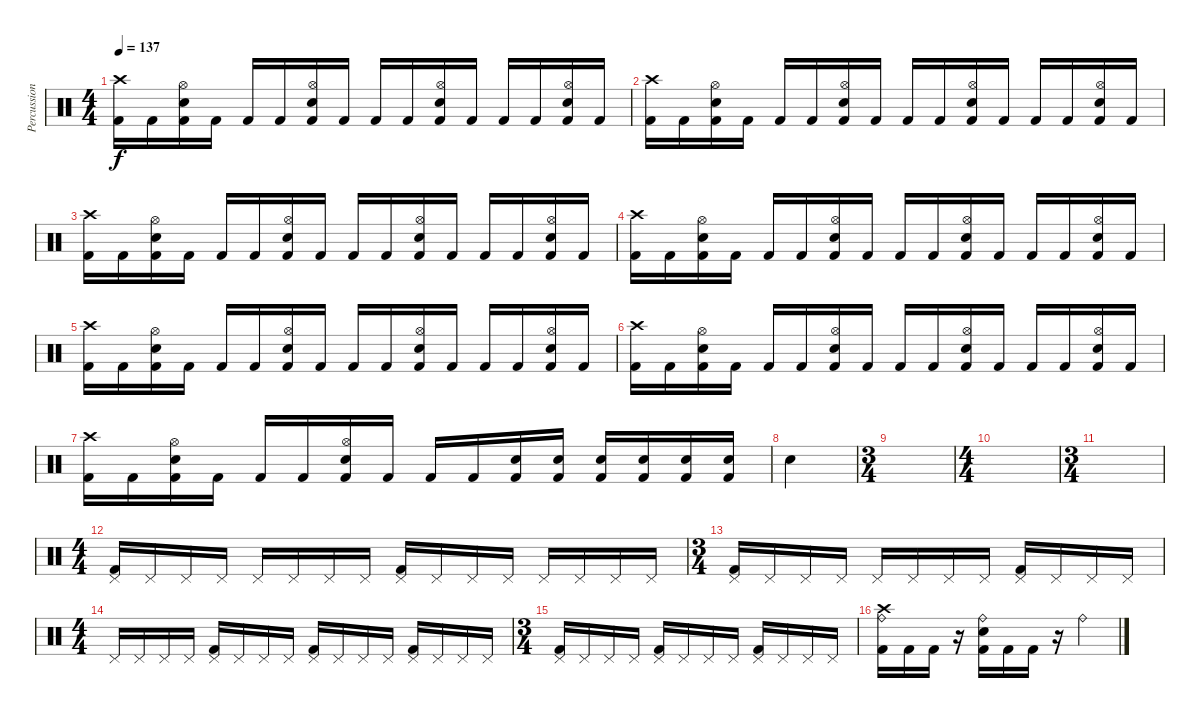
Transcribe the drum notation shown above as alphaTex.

\track ("Percussion" "Percussion") {instrument percussion}
\staff {score}
\articulation defaults
\ts (4 4)
\tempo 137
\clef neutral
\ks c
("Crash high (hit)" "Kick (hit) 2").16{dy f} "Kick (hit) 2".16 ("Hi-Hat (open)" "Electric Snare (hit)" "Kick (hit) 2").16 "Kick (hit) 2".16 "Kick (hit) 2".16 "Kick (hit) 2".16 ("Hi-Hat (open)" "Electric Snare (hit)" "Kick (hit) 2").16 "Kick (hit) 2".16 "Kick (hit) 2".16 "Kick (hit) 2".16 ("Hi-Hat (open)" "Electric Snare (hit)" "Kick (hit) 2").16 "Kick (hit) 2".16 "Kick (hit) 2".16 "Kick (hit) 2".16 ("Hi-Hat (open)" "Electric Snare (hit)" "Kick (hit) 2").16 "Kick (hit) 2".16 |
("Crash high (hit)" "Kick (hit) 2").16 "Kick (hit) 2".16 ("Hi-Hat (open)" "Electric Snare (hit)" "Kick (hit) 2").16 "Kick (hit) 2".16 "Kick (hit) 2".16 "Kick (hit) 2".16 ("Hi-Hat (open)" "Electric Snare (hit)" "Kick (hit) 2").16 "Kick (hit) 2".16 "Kick (hit) 2".16 "Kick (hit) 2".16 ("Hi-Hat (open)" "Electric Snare (hit)" "Kick (hit) 2").16 "Kick (hit) 2".16 "Kick (hit) 2".16 "Kick (hit) 2".16 ("Hi-Hat (open)" "Electric Snare (hit)" "Kick (hit) 2").16 "Kick (hit) 2".16 |
("Crash high (hit)" "Kick (hit) 2").16 "Kick (hit) 2".16 ("Hi-Hat (open)" "Electric Snare (hit)" "Kick (hit) 2").16 "Kick (hit) 2".16 "Kick (hit) 2".16 "Kick (hit) 2".16 ("Hi-Hat (open)" "Electric Snare (hit)" "Kick (hit) 2").16 "Kick (hit) 2".16 "Kick (hit) 2".16 "Kick (hit) 2".16 ("Hi-Hat (open)" "Electric Snare (hit)" "Kick (hit) 2").16 "Kick (hit) 2".16 "Kick (hit) 2".16 "Kick (hit) 2".16 ("Hi-Hat (open)" "Electric Snare (hit)" "Kick (hit) 2").16 "Kick (hit) 2".16 |
("Crash high (hit)" "Kick (hit) 2").16 "Kick (hit) 2".16 ("Hi-Hat (open)" "Electric Snare (hit)" "Kick (hit) 2").16 "Kick (hit) 2".16 "Kick (hit) 2".16 "Kick (hit) 2".16 ("Hi-Hat (open)" "Electric Snare (hit)" "Kick (hit) 2").16 "Kick (hit) 2".16 "Kick (hit) 2".16 "Kick (hit) 2".16 ("Hi-Hat (open)" "Electric Snare (hit)" "Kick (hit) 2").16 "Kick (hit) 2".16 "Kick (hit) 2".16 "Kick (hit) 2".16 ("Hi-Hat (open)" "Electric Snare (hit)" "Kick (hit) 2").16 "Kick (hit) 2".16 |
("Crash high (hit)" "Kick (hit) 2").16 "Kick (hit) 2".16 ("Hi-Hat (open)" "Electric Snare (hit)" "Kick (hit) 2").16 "Kick (hit) 2".16 "Kick (hit) 2".16 "Kick (hit) 2".16 ("Hi-Hat (open)" "Electric Snare (hit)" "Kick (hit) 2").16 "Kick (hit) 2".16 "Kick (hit) 2".16 "Kick (hit) 2".16 ("Hi-Hat (open)" "Electric Snare (hit)" "Kick (hit) 2").16 "Kick (hit) 2".16 "Kick (hit) 2".16 "Kick (hit) 2".16 ("Hi-Hat (open)" "Electric Snare (hit)" "Kick (hit) 2").16 "Kick (hit) 2".16 |
("Crash high (hit)" "Kick (hit) 2").16 "Kick (hit) 2".16 ("Hi-Hat (open)" "Electric Snare (hit)" "Kick (hit) 2").16 "Kick (hit) 2".16 "Kick (hit) 2".16 "Kick (hit) 2".16 ("Hi-Hat (open)" "Electric Snare (hit)" "Kick (hit) 2").16 "Kick (hit) 2".16 "Kick (hit) 2".16 "Kick (hit) 2".16 ("Hi-Hat (open)" "Electric Snare (hit)" "Kick (hit) 2").16 "Kick (hit) 2".16 "Kick (hit) 2".16 "Kick (hit) 2".16 ("Hi-Hat (open)" "Electric Snare (hit)" "Kick (hit) 2").16 "Kick (hit) 2".16 |
("Crash high (hit)" "Kick (hit) 2").16 "Kick (hit) 2".16 ("Hi-Hat (open)" "Electric Snare (hit)" "Kick (hit) 2").16 "Kick (hit) 2".16 "Kick (hit) 2".16 "Kick (hit) 2".16 ("Hi-Hat (open)" "Electric Snare (hit)" "Kick (hit) 2").16 "Kick (hit) 2".16 "Kick (hit) 2".16 "Kick (hit) 2".16 ("Electric Snare (hit)" "Kick (hit) 2").16 ("Electric Snare (hit)" "Kick (hit) 2").16 ("Electric Snare (hit)" "Kick (hit) 2").16 ("Electric Snare (hit)" "Kick (hit) 2").16 ("Electric Snare (hit)" "Kick (hit) 2").16 ("Electric Snare (hit)" "Kick (hit) 2").16 |
"Electric Snare (hit)".4 |
\ts (3 4)
|
\ts (4 4)
|
\ts (3 4)
|
\ts (4 4)
("Pedal Hi-Hat (hit)" "Kick (hit) 2").16 "Pedal Hi-Hat (hit)".16 "Pedal Hi-Hat (hit)".16 "Pedal Hi-Hat (hit)".16 "Pedal Hi-Hat (hit)".16 "Pedal Hi-Hat (hit)".16 "Pedal Hi-Hat (hit)".16 "Pedal Hi-Hat (hit)".16 ("Pedal Hi-Hat (hit)" "Kick (hit) 2").16 "Pedal Hi-Hat (hit)".16 "Pedal Hi-Hat (hit)".16 "Pedal Hi-Hat (hit)".16 "Pedal Hi-Hat (hit)".16 "Pedal Hi-Hat (hit)".16 "Pedal Hi-Hat (hit)".16 "Pedal Hi-Hat (hit)".16 |
\ts (3 4)
("Pedal Hi-Hat (hit)" "Kick (hit) 2").16 "Pedal Hi-Hat (hit)".16 "Pedal Hi-Hat (hit)".16 "Pedal Hi-Hat (hit)".16 "Pedal Hi-Hat (hit)".16 "Pedal Hi-Hat (hit)".16 "Pedal Hi-Hat (hit)".16 "Pedal Hi-Hat (hit)".16 ("Pedal Hi-Hat (hit)" "Kick (hit) 2").16 "Pedal Hi-Hat (hit)".16 "Pedal Hi-Hat (hit)".16 "Pedal Hi-Hat (hit)".16 |
\ts (4 4)
"Pedal Hi-Hat (hit)".16 "Pedal Hi-Hat (hit)".16 "Pedal Hi-Hat (hit)".16 "Pedal Hi-Hat (hit)".16 ("Pedal Hi-Hat (hit)" "Kick (hit) 2").16 "Pedal Hi-Hat (hit)".16 "Pedal Hi-Hat (hit)".16 "Pedal Hi-Hat (hit)".16 ("Pedal Hi-Hat (hit)" "Kick (hit) 2").16 "Pedal Hi-Hat (hit)".16 "Pedal Hi-Hat (hit)".16 "Pedal Hi-Hat (hit)".16 ("Pedal Hi-Hat (hit)" "Kick (hit) 2").16 "Pedal Hi-Hat (hit)".16 "Pedal Hi-Hat (hit)".16 "Pedal Hi-Hat (hit)".16 |
\ts (3 4)
("Pedal Hi-Hat (hit)" "Kick (hit) 2").16 "Pedal Hi-Hat (hit)".16 "Pedal Hi-Hat (hit)".16 "Pedal Hi-Hat (hit)".16 ("Pedal Hi-Hat (hit)" "Kick (hit) 2").16 "Pedal Hi-Hat (hit)".16 "Pedal Hi-Hat (hit)".16 "Pedal Hi-Hat (hit)".16 ("Pedal Hi-Hat (hit)" "Kick (hit) 2").16 "Pedal Hi-Hat (hit)".16 "Pedal Hi-Hat (hit)".16 "Pedal Hi-Hat (hit)".16 |
("Crash high (hit)" "Ride (bell)" "Kick (hit) 2").16 "Kick (hit) 2".16 "Kick (hit) 2".16 r.16 ("Ride (bell)" "Electric Snare (hit)" "Kick (hit) 2").16 "Kick (hit) 2".16 "Kick (hit) 2".16 r.16 "Ride (bell)".4
